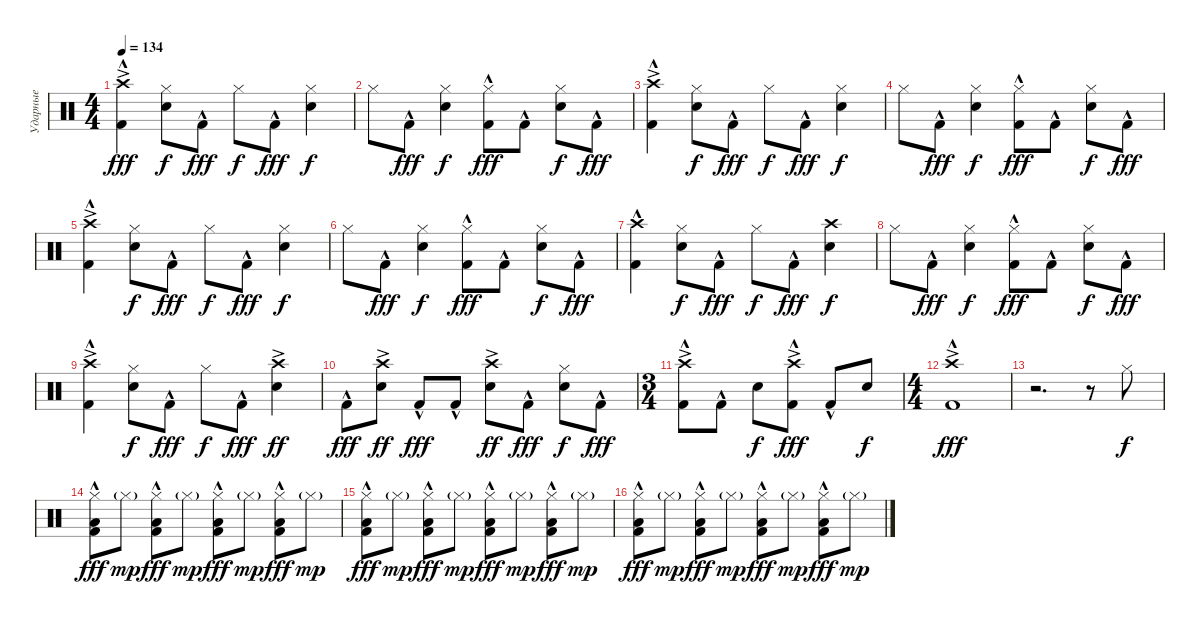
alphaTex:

\track ("Ударные" "Ударные") {instrument percussion}
\staff {score}
\articulation defaults
\ts (4 4)
\tempo 134
\clef neutral
\ks c
("Crash high (hit)"{ac} "Kick (hit) 2"{hac}).4{dy fff} ("Hi-Hat (closed)" "Snare (hit) 2").8{dy f} "Kick (hit) 2"{hac}.8{dy fff} "Hi-Hat (closed)".8{dy f} "Kick (hit) 2"{hac}.8{dy fff} ("Hi-Hat (closed)" "Snare (hit) 2").4{dy f} |
"Hi-Hat (closed)".8 "Kick (hit) 2"{hac}.8{dy fff} ("Hi-Hat (closed)" "Snare (hit) 2").4{dy f} ("Hi-Hat (closed)" "Kick (hit) 2"{hac}).8{dy fff} "Kick (hit) 2"{hac}.8 ("Hi-Hat (closed)" "Snare (hit) 2").8{dy f} "Kick (hit) 2"{hac}.8{dy fff} |
("Crash high (hit)"{ac} "Kick (hit) 2"{hac}).4 ("Hi-Hat (closed)" "Snare (hit) 2").8{dy f} "Kick (hit) 2"{hac}.8{dy fff} "Hi-Hat (closed)".8{dy f} "Kick (hit) 2"{hac}.8{dy fff} ("Hi-Hat (closed)" "Snare (hit) 2").4{dy f} |
"Hi-Hat (closed)".8 "Kick (hit) 2"{hac}.8{dy fff} ("Hi-Hat (closed)" "Snare (hit) 2").4{dy f} ("Hi-Hat (closed)" "Kick (hit) 2"{hac}).8{dy fff} "Kick (hit) 2"{hac}.8 ("Hi-Hat (closed)" "Snare (hit) 2").8{dy f} "Kick (hit) 2"{hac}.8{dy fff} |
("Crash high (hit)"{ac} "Kick (hit) 2"{hac}).4 ("Hi-Hat (closed)" "Snare (hit) 2").8{dy f} "Kick (hit) 2"{hac}.8{dy fff} "Hi-Hat (closed)".8{dy f} "Kick (hit) 2"{hac}.8{dy fff} ("Hi-Hat (closed)" "Snare (hit) 2").4{dy f} |
"Hi-Hat (closed)".8 "Kick (hit) 2"{hac}.8{dy fff} ("Hi-Hat (closed)" "Snare (hit) 2").4{dy f} ("Hi-Hat (closed)" "Kick (hit) 2"{hac}).8{dy fff} "Kick (hit) 2"{hac}.8 ("Hi-Hat (closed)" "Snare (hit) 2").8{dy f} "Kick (hit) 2"{hac}.8{dy fff} |
("Crash high (hit)" "Kick (hit) 2"{hac}).4 ("Hi-Hat (closed)" "Snare (hit) 2").8{dy f} "Kick (hit) 2"{hac}.8{dy fff} "Hi-Hat (closed)".8{dy f} "Kick (hit) 2"{hac}.8{dy fff} ("Crash high (hit)" "Snare (hit) 2").4{dy f} |
"Hi-Hat (closed)".8 "Kick (hit) 2"{hac}.8{dy fff} ("Hi-Hat (closed)" "Snare (hit) 2").4{dy f} ("Hi-Hat (closed)" "Kick (hit) 2"{hac}).8{dy fff} "Kick (hit) 2"{hac}.8 ("Hi-Hat (closed)" "Snare (hit) 2").8{dy f} "Kick (hit) 2"{hac}.8{dy fff} |
("Crash high (hit)"{ac} "Kick (hit) 2"{hac}).4 ("Hi-Hat (closed)" "Snare (hit) 2").8{dy f} "Kick (hit) 2"{hac}.8{dy fff} "Hi-Hat (closed)".8{dy f} "Kick (hit) 2"{hac}.8{dy fff} ("Crash high (hit)"{ac} "Snare (hit) 2").4{dy ff} |
"Kick (hit) 2"{hac}.8{dy fff} ("Crash high (hit)"{ac} "Snare (hit) 2").8{dy ff} "Kick (hit) 2"{hac}.8{dy fff} "Kick (hit) 2"{hac}.8 ("Crash high (hit)"{ac} "Snare (hit) 2").8{dy ff} "Kick (hit) 2"{hac}.8{dy fff} ("Hi-Hat (closed)" "Snare (hit) 2").8{dy f} "Kick (hit) 2"{hac}.8{dy fff} |
\ts (3 4)
("Crash high (hit)"{ac} "Kick (hit) 2"{hac}).8 "Kick (hit) 2"{hac}.8 "Snare (hit) 2".8{dy f} ("Crash high (hit)"{ac} "Kick (hit) 2"{hac}).8{dy fff} "Kick (hit) 2"{hac}.8 "Snare (hit) 2".8{dy f} |
\ts (4 4)
("Crash high (hit)"{ac} "Kick (hit) 2"{hac}).1{dy fff} |
r.2{d} r.8 "Hi-Hat (closed)".8{dy f} |
("Hi-Hat (closed)" "Low Floor Tom (hit)"{hac} "Kick (hit) 2"{hac}).8{dy fff} "Hi-Hat (closed)"{g}.8{dy mp} ("Hi-Hat (closed)" "Low Floor Tom (hit)"{hac} "Kick (hit) 2"{hac}).8{dy fff} "Hi-Hat (closed)"{g}.8{dy mp} ("Hi-Hat (closed)" "Low Floor Tom (hit)"{hac} "Kick (hit) 2"{hac}).8{dy fff} "Hi-Hat (closed)"{g}.8{dy mp} ("Hi-Hat (closed)" "Low Floor Tom (hit)"{hac} "Kick (hit) 2"{hac}).8{dy fff} "Hi-Hat (closed)"{g}.8{dy mp} |
("Hi-Hat (closed)" "Low Floor Tom (hit)"{hac} "Kick (hit) 2"{hac}).8{dy fff} "Hi-Hat (closed)"{g}.8{dy mp} ("Hi-Hat (closed)" "Low Floor Tom (hit)"{hac} "Kick (hit) 2"{hac}).8{dy fff} "Hi-Hat (closed)"{g}.8{dy mp} ("Hi-Hat (closed)" "Low Floor Tom (hit)"{hac} "Kick (hit) 2"{hac}).8{dy fff} "Hi-Hat (closed)"{g}.8{dy mp} ("Hi-Hat (closed)" "Low Floor Tom (hit)"{hac} "Kick (hit) 2"{hac}).8{dy fff} "Hi-Hat (closed)"{g}.8{dy mp} |
("Hi-Hat (closed)" "Low Floor Tom (hit)"{hac} "Kick (hit) 2"{hac}).8{dy fff} "Hi-Hat (closed)"{g}.8{dy mp} ("Hi-Hat (closed)" "Low Floor Tom (hit)"{hac} "Kick (hit) 2"{hac}).8{dy fff} "Hi-Hat (closed)"{g}.8{dy mp} ("Hi-Hat (closed)" "Low Floor Tom (hit)"{hac} "Kick (hit) 2"{hac}).8{dy fff} "Hi-Hat (closed)"{g}.8{dy mp} ("Hi-Hat (closed)" "Low Floor Tom (hit)"{hac} "Kick (hit) 2"{hac}).8{dy fff} "Hi-Hat (closed)"{g}.8{dy mp}
